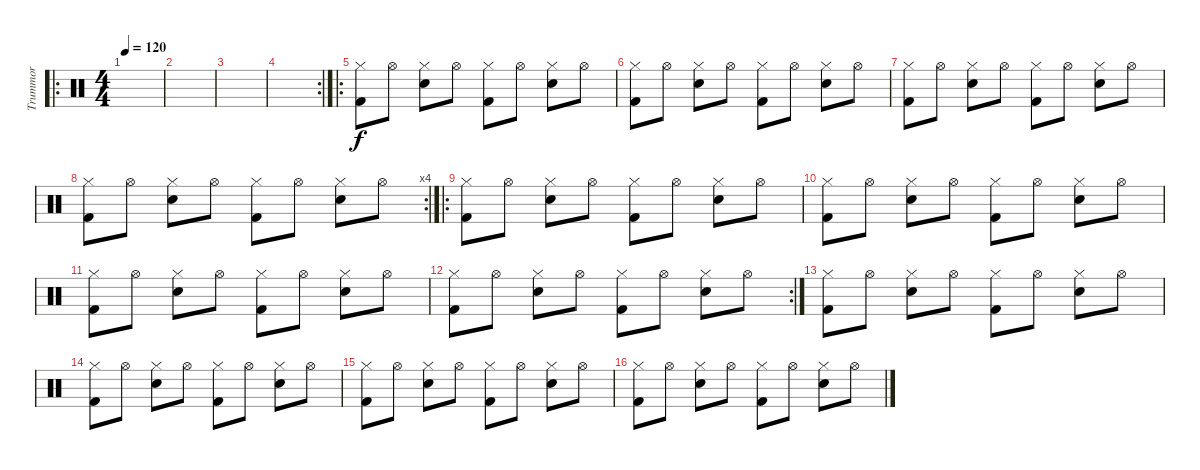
\track ("Trummor" "Trummor") {instrument percussion}
\staff {score}
\articulation defaults
\ro
\ts (4 4)
\tempo 120
\clef neutral
\ks c
|
|
|
\rc 2
|
\ro
("Hi-Hat (closed)" "Kick (hit) 2").8 "Hi-Hat (open)".8 ("Hi-Hat (closed)" "Snare (hit) 2").8 "Hi-Hat (open)".8 ("Hi-Hat (closed)" "Kick (hit) 2").8 "Hi-Hat (open)".8 ("Hi-Hat (closed)" "Snare (hit) 2").8 "Hi-Hat (open)".8 |
("Hi-Hat (closed)" "Kick (hit) 2").8 "Hi-Hat (open)".8 ("Hi-Hat (closed)" "Snare (hit) 2").8 "Hi-Hat (open)".8 ("Hi-Hat (closed)" "Kick (hit) 2").8 "Hi-Hat (open)".8 ("Hi-Hat (closed)" "Snare (hit) 2").8 "Hi-Hat (open)".8 |
("Hi-Hat (closed)" "Kick (hit) 2").8 "Hi-Hat (open)".8 ("Hi-Hat (closed)" "Snare (hit) 2").8 "Hi-Hat (open)".8 ("Hi-Hat (closed)" "Kick (hit) 2").8 "Hi-Hat (open)".8 ("Hi-Hat (closed)" "Snare (hit) 2").8 "Hi-Hat (open)".8 |
\rc 4
("Hi-Hat (closed)" "Kick (hit) 2").8 "Hi-Hat (open)".8 ("Hi-Hat (closed)" "Snare (hit) 2").8 "Hi-Hat (open)".8 ("Hi-Hat (closed)" "Kick (hit) 2").8 "Hi-Hat (open)".8 ("Hi-Hat (closed)" "Snare (hit) 2").8 "Hi-Hat (open)".8 |
\ro
("Hi-Hat (closed)" "Kick (hit) 2").8 "Hi-Hat (open)".8 ("Hi-Hat (closed)" "Snare (hit) 2").8 "Hi-Hat (open)".8 ("Hi-Hat (closed)" "Kick (hit) 2").8 "Hi-Hat (open)".8 ("Hi-Hat (closed)" "Snare (hit) 2").8 "Hi-Hat (open)".8 |
("Hi-Hat (closed)" "Kick (hit) 2").8 "Hi-Hat (open)".8 ("Hi-Hat (closed)" "Snare (hit) 2").8 "Hi-Hat (open)".8 ("Hi-Hat (closed)" "Kick (hit) 2").8 "Hi-Hat (open)".8 ("Hi-Hat (closed)" "Snare (hit) 2").8 "Hi-Hat (open)".8 |
("Hi-Hat (closed)" "Kick (hit) 2").8 "Hi-Hat (open)".8 ("Hi-Hat (closed)" "Snare (hit) 2").8 "Hi-Hat (open)".8 ("Hi-Hat (closed)" "Kick (hit) 2").8 "Hi-Hat (open)".8 ("Hi-Hat (closed)" "Snare (hit) 2").8 "Hi-Hat (open)".8 |
\rc 2
("Hi-Hat (closed)" "Kick (hit) 2").8 "Hi-Hat (open)".8 ("Hi-Hat (closed)" "Snare (hit) 2").8 "Hi-Hat (open)".8 ("Hi-Hat (closed)" "Kick (hit) 2").8 "Hi-Hat (open)".8 ("Hi-Hat (closed)" "Snare (hit) 2").8 "Hi-Hat (open)".8 |
("Hi-Hat (closed)" "Kick (hit) 2").8 "Hi-Hat (open)".8 ("Hi-Hat (closed)" "Snare (hit) 2").8 "Hi-Hat (open)".8 ("Hi-Hat (closed)" "Kick (hit) 2").8 "Hi-Hat (open)".8 ("Hi-Hat (closed)" "Snare (hit) 2").8 "Hi-Hat (open)".8 |
("Hi-Hat (closed)" "Kick (hit) 2").8 "Hi-Hat (open)".8 ("Hi-Hat (closed)" "Snare (hit) 2").8 "Hi-Hat (open)".8 ("Hi-Hat (closed)" "Kick (hit) 2").8 "Hi-Hat (open)".8 ("Hi-Hat (closed)" "Snare (hit) 2").8 "Hi-Hat (open)".8 |
("Hi-Hat (closed)" "Kick (hit) 2").8 "Hi-Hat (open)".8 ("Hi-Hat (closed)" "Snare (hit) 2").8 "Hi-Hat (open)".8 ("Hi-Hat (closed)" "Kick (hit) 2").8 "Hi-Hat (open)".8 ("Hi-Hat (closed)" "Snare (hit) 2").8 "Hi-Hat (open)".8 |
("Hi-Hat (closed)" "Kick (hit) 2").8 "Hi-Hat (open)".8 ("Hi-Hat (closed)" "Snare (hit) 2").8 "Hi-Hat (open)".8 ("Hi-Hat (closed)" "Kick (hit) 2").8 "Hi-Hat (open)".8 ("Hi-Hat (closed)" "Snare (hit) 2").8 "Hi-Hat (open)".8
